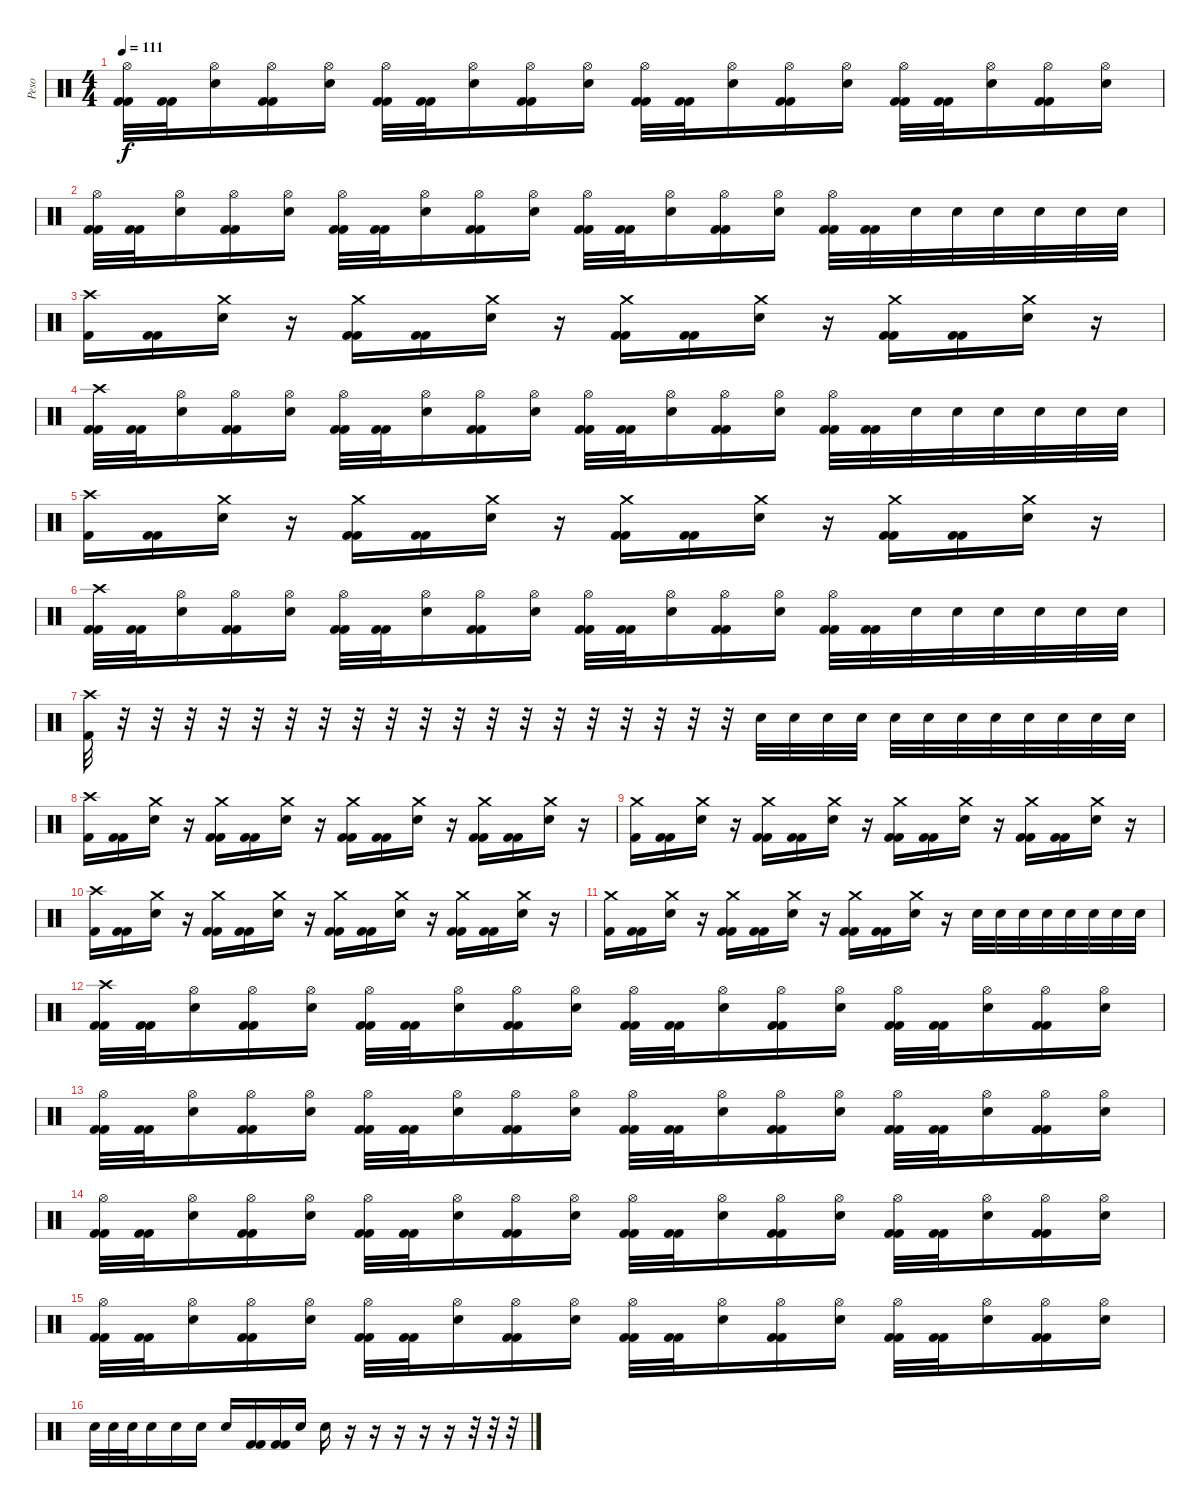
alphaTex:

\track ("Peso" "Peso") {instrument percussion}
\staff {score}
\articulation defaults
\ts (4 4)
\tempo 111
\clef neutral
\ks c
("Hi-Hat (open)" "Kick (hit) 2" "Kick (hit) 2").32{dy f} ("Kick (hit) 2" "Kick (hit) 2").32 ("Hi-Hat (open)" "Snare (hit) 2").16 ("Hi-Hat (open)" "Kick (hit) 2" "Kick (hit) 2").16 ("Hi-Hat (open)" "Snare (hit) 2").16 ("Hi-Hat (open)" "Kick (hit) 2" "Kick (hit) 2").32 ("Kick (hit) 2" "Kick (hit) 2").32 ("Hi-Hat (open)" "Snare (hit) 2").16 ("Hi-Hat (open)" "Kick (hit) 2" "Kick (hit) 2").16 ("Hi-Hat (open)" "Snare (hit) 2").16 ("Hi-Hat (open)" "Kick (hit) 2" "Kick (hit) 2").32 ("Kick (hit) 2" "Kick (hit) 2").32 ("Hi-Hat (open)" "Snare (hit) 2").16 ("Hi-Hat (open)" "Kick (hit) 2" "Kick (hit) 2").16 ("Hi-Hat (open)" "Snare (hit) 2").16 ("Hi-Hat (open)" "Kick (hit) 2" "Kick (hit) 2").32 ("Kick (hit) 2" "Kick (hit) 2").32 ("Hi-Hat (open)" "Snare (hit) 2").16 ("Hi-Hat (open)" "Kick (hit) 2" "Kick (hit) 2").16 ("Hi-Hat (open)" "Snare (hit) 2").16 |
("Hi-Hat (open)" "Kick (hit) 2" "Kick (hit) 2").32 ("Kick (hit) 2" "Kick (hit) 2").32 ("Hi-Hat (open)" "Snare (hit) 2").16 ("Hi-Hat (open)" "Kick (hit) 2" "Kick (hit) 2").16 ("Hi-Hat (open)" "Snare (hit) 2").16 ("Hi-Hat (open)" "Kick (hit) 2" "Kick (hit) 2").32 ("Kick (hit) 2" "Kick (hit) 2").32 ("Hi-Hat (open)" "Snare (hit) 2").16 ("Hi-Hat (open)" "Kick (hit) 2" "Kick (hit) 2").16 ("Hi-Hat (open)" "Snare (hit) 2").16 ("Hi-Hat (open)" "Kick (hit) 2" "Kick (hit) 2").32 ("Kick (hit) 2" "Kick (hit) 2").32 ("Hi-Hat (open)" "Snare (hit) 2").16 ("Hi-Hat (open)" "Kick (hit) 2" "Kick (hit) 2").16 ("Hi-Hat (open)" "Snare (hit) 2").16 ("Hi-Hat (open)" "Kick (hit) 2" "Kick (hit) 2").32 ("Kick (hit) 2" "Kick (hit) 2").32 "Snare (hit) 2".32 "Snare (hit) 2".32 "Snare (hit) 2".32 "Snare (hit) 2".32 "Snare (hit) 2".32 "Snare (hit) 2".32 |
("Crash high (hit)" "Kick (hit) 2").16 ("Kick (hit) 2" "Kick (hit) 2").16 ("Crash medium (hit)" "Snare (hit) 2").16 r.16 ("Crash medium (hit)" "Kick (hit) 2" "Kick (hit) 2").16 ("Kick (hit) 2" "Kick (hit) 2").16 ("Crash medium (hit)" "Snare (hit) 2").16 r.16 ("Crash medium (hit)" "Kick (hit) 2" "Kick (hit) 2").16 ("Kick (hit) 2" "Kick (hit) 2").16 ("Crash medium (hit)" "Snare (hit) 2").16 r.16 ("Crash medium (hit)" "Kick (hit) 2" "Kick (hit) 2").16 ("Kick (hit) 2" "Kick (hit) 2").16 ("Crash medium (hit)" "Snare (hit) 2").16 r.16 |
("Crash high (hit)" "Kick (hit) 2" "Kick (hit) 2").32 ("Kick (hit) 2" "Kick (hit) 2").32 ("Hi-Hat (open)" "Snare (hit) 2").16 ("Hi-Hat (open)" "Kick (hit) 2" "Kick (hit) 2").16 ("Hi-Hat (open)" "Snare (hit) 2").16 ("Hi-Hat (open)" "Kick (hit) 2" "Kick (hit) 2").32 ("Kick (hit) 2" "Kick (hit) 2").32 ("Hi-Hat (open)" "Snare (hit) 2").16 ("Hi-Hat (open)" "Kick (hit) 2" "Kick (hit) 2").16 ("Hi-Hat (open)" "Snare (hit) 2").16 ("Hi-Hat (open)" "Kick (hit) 2" "Kick (hit) 2").32 ("Kick (hit) 2" "Kick (hit) 2").32 ("Hi-Hat (open)" "Snare (hit) 2").16 ("Hi-Hat (open)" "Kick (hit) 2" "Kick (hit) 2").16 ("Hi-Hat (open)" "Snare (hit) 2").16 ("Hi-Hat (open)" "Kick (hit) 2" "Kick (hit) 2").32 ("Kick (hit) 2" "Kick (hit) 2").32 "Snare (hit) 2".32 "Snare (hit) 2".32 "Snare (hit) 2".32 "Snare (hit) 2".32 "Snare (hit) 2".32 "Snare (hit) 2".32 |
("Crash high (hit)" "Kick (hit) 2").16 ("Kick (hit) 2" "Kick (hit) 2").16 ("Crash medium (hit)" "Snare (hit) 2").16 r.16 ("Crash medium (hit)" "Kick (hit) 2" "Kick (hit) 2").16 ("Kick (hit) 2" "Kick (hit) 2").16 ("Crash medium (hit)" "Snare (hit) 2").16 r.16 ("Crash medium (hit)" "Kick (hit) 2" "Kick (hit) 2").16 ("Kick (hit) 2" "Kick (hit) 2").16 ("Crash medium (hit)" "Snare (hit) 2").16 r.16 ("Crash medium (hit)" "Kick (hit) 2" "Kick (hit) 2").16 ("Kick (hit) 2" "Kick (hit) 2").16 ("Crash medium (hit)" "Snare (hit) 2").16 r.16 |
("Crash high (hit)" "Kick (hit) 2" "Kick (hit) 2").32 ("Kick (hit) 2" "Kick (hit) 2").32 ("Hi-Hat (open)" "Snare (hit) 2").16 ("Hi-Hat (open)" "Kick (hit) 2" "Kick (hit) 2").16 ("Hi-Hat (open)" "Snare (hit) 2").16 ("Hi-Hat (open)" "Kick (hit) 2" "Kick (hit) 2").32 ("Kick (hit) 2" "Kick (hit) 2").32 ("Hi-Hat (open)" "Snare (hit) 2").16 ("Hi-Hat (open)" "Kick (hit) 2" "Kick (hit) 2").16 ("Hi-Hat (open)" "Snare (hit) 2").16 ("Hi-Hat (open)" "Kick (hit) 2" "Kick (hit) 2").32 ("Kick (hit) 2" "Kick (hit) 2").32 ("Hi-Hat (open)" "Snare (hit) 2").16 ("Hi-Hat (open)" "Kick (hit) 2" "Kick (hit) 2").16 ("Hi-Hat (open)" "Snare (hit) 2").16 ("Hi-Hat (open)" "Kick (hit) 2" "Kick (hit) 2").32 ("Kick (hit) 2" "Kick (hit) 2").32 "Snare (hit) 2".32 "Snare (hit) 2".32 "Snare (hit) 2".32 "Snare (hit) 2".32 "Snare (hit) 2".32 "Snare (hit) 2".32 |
("Crash high (hit)" "Kick (hit) 2").32 r.32 r.32 r.32 r.32 r.32 r.32 r.32 r.32 r.32 r.32 r.32 r.32 r.32 r.32 r.32 r.32 r.32 r.32 r.32 "Snare (hit) 2".32 "Snare (hit) 2".32 "Snare (hit) 2".32 "Snare (hit) 2".32 "Snare (hit) 2".32 "Snare (hit) 2".32 "Snare (hit) 2".32 "Snare (hit) 2".32 "Snare (hit) 2".32 "Snare (hit) 2".32 "Snare (hit) 2".32 "Snare (hit) 2".32 |
("Crash high (hit)" "Kick (hit) 2").16 ("Kick (hit) 2" "Kick (hit) 2").16 ("Crash medium (hit)" "Snare (hit) 2").16 r.16 ("Crash medium (hit)" "Kick (hit) 2" "Kick (hit) 2").16 ("Kick (hit) 2" "Kick (hit) 2").16 ("Crash medium (hit)" "Snare (hit) 2").16 r.16 ("Crash medium (hit)" "Kick (hit) 2" "Kick (hit) 2").16 ("Kick (hit) 2" "Kick (hit) 2").16 ("Crash medium (hit)" "Snare (hit) 2").16 r.16 ("Crash medium (hit)" "Kick (hit) 2" "Kick (hit) 2").16 ("Kick (hit) 2" "Kick (hit) 2").16 ("Crash medium (hit)" "Snare (hit) 2").16 r.16 |
("Crash medium (hit)" "Kick (hit) 2").16 ("Kick (hit) 2" "Kick (hit) 2").16 ("Crash medium (hit)" "Snare (hit) 2").16 r.16 ("Crash medium (hit)" "Kick (hit) 2" "Kick (hit) 2").16 ("Kick (hit) 2" "Kick (hit) 2").16 ("Crash medium (hit)" "Snare (hit) 2").16 r.16 ("Crash medium (hit)" "Kick (hit) 2" "Kick (hit) 2").16 ("Kick (hit) 2" "Kick (hit) 2").16 ("Crash medium (hit)" "Snare (hit) 2").16 r.16 ("Crash medium (hit)" "Kick (hit) 2" "Kick (hit) 2").16 ("Kick (hit) 2" "Kick (hit) 2").16 ("Crash medium (hit)" "Snare (hit) 2").16 r.16 |
("Crash high (hit)" "Kick (hit) 2").16 ("Kick (hit) 2" "Kick (hit) 2").16 ("Crash medium (hit)" "Snare (hit) 2").16 r.16 ("Crash medium (hit)" "Kick (hit) 2" "Kick (hit) 2").16 ("Kick (hit) 2" "Kick (hit) 2").16 ("Crash medium (hit)" "Snare (hit) 2").16 r.16 ("Crash medium (hit)" "Kick (hit) 2" "Kick (hit) 2").16 ("Kick (hit) 2" "Kick (hit) 2").16 ("Crash medium (hit)" "Snare (hit) 2").16 r.16 ("Crash medium (hit)" "Kick (hit) 2" "Kick (hit) 2").16 ("Kick (hit) 2" "Kick (hit) 2").16 ("Crash medium (hit)" "Snare (hit) 2").16 r.16 |
("Crash medium (hit)" "Kick (hit) 2").16 ("Kick (hit) 2" "Kick (hit) 2").16 ("Crash medium (hit)" "Snare (hit) 2").16 r.16 ("Crash medium (hit)" "Kick (hit) 2" "Kick (hit) 2").16 ("Kick (hit) 2" "Kick (hit) 2").16 ("Crash medium (hit)" "Snare (hit) 2").16 r.16 ("Crash medium (hit)" "Kick (hit) 2" "Kick (hit) 2").16 ("Kick (hit) 2" "Kick (hit) 2").16 ("Crash medium (hit)" "Snare (hit) 2").16 r.16 "Snare (hit) 2".32 "Snare (hit) 2".32 "Snare (hit) 2".32 "Snare (hit) 2".32 "Snare (hit) 2".32 "Snare (hit) 2".32 "Snare (hit) 2".32 "Snare (hit) 2".32 |
("Crash high (hit)" "Kick (hit) 2" "Kick (hit) 2").32 ("Kick (hit) 2" "Kick (hit) 2").32 ("Hi-Hat (open)" "Snare (hit) 2").16 ("Hi-Hat (open)" "Kick (hit) 2" "Kick (hit) 2").16 ("Hi-Hat (open)" "Snare (hit) 2").16 ("Hi-Hat (open)" "Kick (hit) 2" "Kick (hit) 2").32 ("Kick (hit) 2" "Kick (hit) 2").32 ("Hi-Hat (open)" "Snare (hit) 2").16 ("Hi-Hat (open)" "Kick (hit) 2" "Kick (hit) 2").16 ("Hi-Hat (open)" "Snare (hit) 2").16 ("Hi-Hat (open)" "Kick (hit) 2" "Kick (hit) 2").32 ("Kick (hit) 2" "Kick (hit) 2").32 ("Hi-Hat (open)" "Snare (hit) 2").16 ("Hi-Hat (open)" "Kick (hit) 2" "Kick (hit) 2").16 ("Hi-Hat (open)" "Snare (hit) 2").16 ("Hi-Hat (open)" "Kick (hit) 2" "Kick (hit) 2").32 ("Kick (hit) 2" "Kick (hit) 2").32 ("Hi-Hat (open)" "Snare (hit) 2").16 ("Hi-Hat (open)" "Kick (hit) 2" "Kick (hit) 2").16 ("Hi-Hat (open)" "Snare (hit) 2").16 |
("Hi-Hat (open)" "Kick (hit) 2" "Kick (hit) 2").32 ("Kick (hit) 2" "Kick (hit) 2").32 ("Hi-Hat (open)" "Snare (hit) 2").16 ("Hi-Hat (open)" "Kick (hit) 2" "Kick (hit) 2").16 ("Hi-Hat (open)" "Snare (hit) 2").16 ("Hi-Hat (open)" "Kick (hit) 2" "Kick (hit) 2").32 ("Kick (hit) 2" "Kick (hit) 2").32 ("Hi-Hat (open)" "Snare (hit) 2").16 ("Hi-Hat (open)" "Kick (hit) 2" "Kick (hit) 2").16 ("Hi-Hat (open)" "Snare (hit) 2").16 ("Hi-Hat (open)" "Kick (hit) 2" "Kick (hit) 2").32 ("Kick (hit) 2" "Kick (hit) 2").32 ("Hi-Hat (open)" "Snare (hit) 2").16 ("Hi-Hat (open)" "Kick (hit) 2" "Kick (hit) 2").16 ("Hi-Hat (open)" "Snare (hit) 2").16 ("Hi-Hat (open)" "Kick (hit) 2" "Kick (hit) 2").32 ("Kick (hit) 2" "Kick (hit) 2").32 ("Hi-Hat (open)" "Snare (hit) 2").16 ("Hi-Hat (open)" "Kick (hit) 2" "Kick (hit) 2").16 ("Hi-Hat (open)" "Snare (hit) 2").16 |
("Hi-Hat (open)" "Kick (hit) 2" "Kick (hit) 2").32 ("Kick (hit) 2" "Kick (hit) 2").32 ("Hi-Hat (open)" "Snare (hit) 2").16 ("Hi-Hat (open)" "Kick (hit) 2" "Kick (hit) 2").16 ("Hi-Hat (open)" "Snare (hit) 2").16 ("Hi-Hat (open)" "Kick (hit) 2" "Kick (hit) 2").32 ("Kick (hit) 2" "Kick (hit) 2").32 ("Hi-Hat (open)" "Snare (hit) 2").16 ("Hi-Hat (open)" "Kick (hit) 2" "Kick (hit) 2").16 ("Hi-Hat (open)" "Snare (hit) 2").16 ("Hi-Hat (open)" "Kick (hit) 2" "Kick (hit) 2").32 ("Kick (hit) 2" "Kick (hit) 2").32 ("Hi-Hat (open)" "Snare (hit) 2").16 ("Hi-Hat (open)" "Kick (hit) 2" "Kick (hit) 2").16 ("Hi-Hat (open)" "Snare (hit) 2").16 ("Hi-Hat (open)" "Kick (hit) 2" "Kick (hit) 2").32 ("Kick (hit) 2" "Kick (hit) 2").32 ("Hi-Hat (open)" "Snare (hit) 2").16 ("Hi-Hat (open)" "Kick (hit) 2" "Kick (hit) 2").16 ("Hi-Hat (open)" "Snare (hit) 2").16 |
("Hi-Hat (open)" "Kick (hit) 2" "Kick (hit) 2").32 ("Kick (hit) 2" "Kick (hit) 2").32 ("Hi-Hat (open)" "Snare (hit) 2").16 ("Hi-Hat (open)" "Kick (hit) 2" "Kick (hit) 2").16 ("Hi-Hat (open)" "Snare (hit) 2").16 ("Hi-Hat (open)" "Kick (hit) 2" "Kick (hit) 2").32 ("Kick (hit) 2" "Kick (hit) 2").32 ("Hi-Hat (open)" "Snare (hit) 2").16 ("Hi-Hat (open)" "Kick (hit) 2" "Kick (hit) 2").16 ("Hi-Hat (open)" "Snare (hit) 2").16 ("Hi-Hat (open)" "Kick (hit) 2" "Kick (hit) 2").32 ("Kick (hit) 2" "Kick (hit) 2").32 ("Hi-Hat (open)" "Snare (hit) 2").16 ("Hi-Hat (open)" "Kick (hit) 2" "Kick (hit) 2").16 ("Hi-Hat (open)" "Snare (hit) 2").16 ("Hi-Hat (open)" "Kick (hit) 2" "Kick (hit) 2").32 ("Kick (hit) 2" "Kick (hit) 2").32 ("Hi-Hat (open)" "Snare (hit) 2").16 ("Hi-Hat (open)" "Kick (hit) 2" "Kick (hit) 2").16 ("Hi-Hat (open)" "Snare (hit) 2").16 |
"Snare (hit) 2".32 "Snare (hit) 2".32 "Snare (hit) 2".32 "Snare (hit) 2".16 "Snare (hit) 2".16 "Snare (hit) 2".16 "Snare (hit) 2".16 ("Kick (hit) 2" "Kick (hit) 2").16 ("Kick (hit) 2" "Kick (hit) 2").16 "Snare (hit) 2".16 "Snare (hit) 2".16 r.16 r.16 r.16 r.16 r.16 r.32 r.32 r.32
